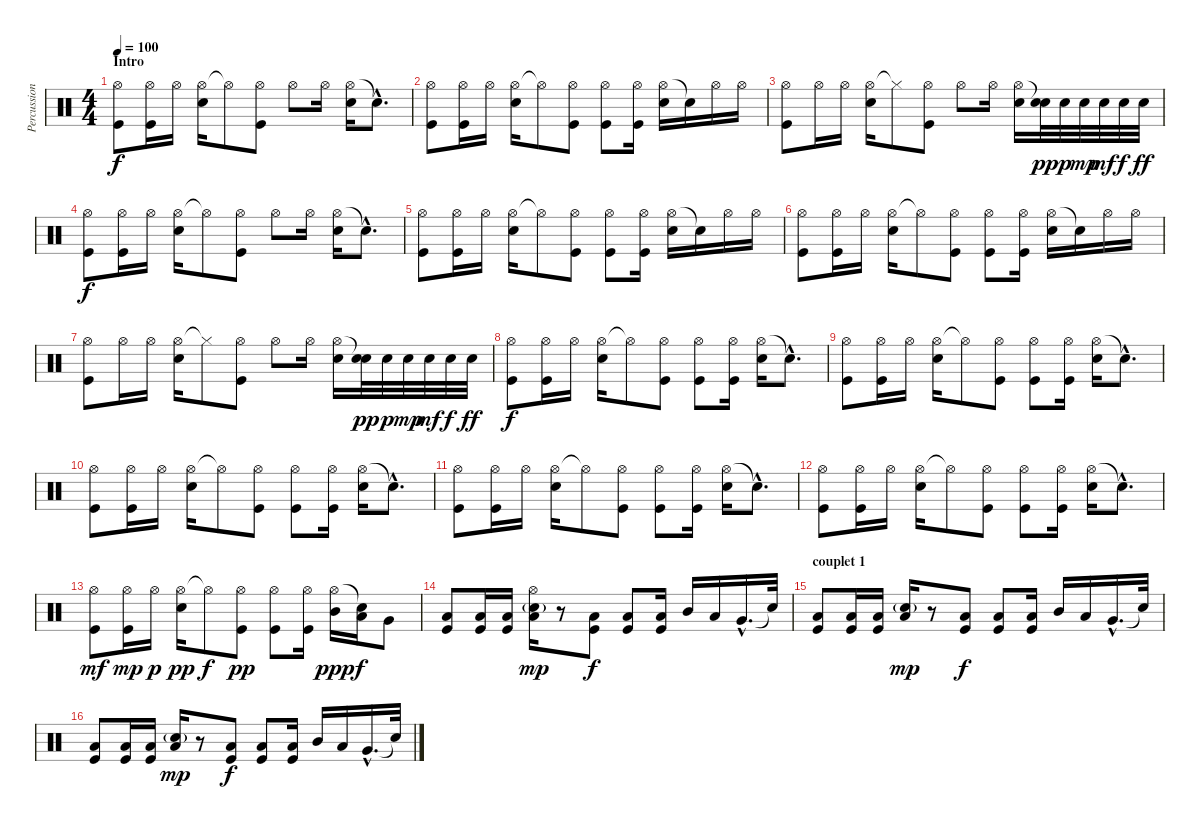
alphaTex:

\track ("Percussions" "Percussion") {instrument percussion}
\staff {score}
\articulation defaults
\ts (4 4)
\section ("" "Intro")
\tempo 100
\clef neutral
\ks c
("Hi-Hat (open)" "Kick (hit)").8{dy f} ("Hi-Hat (open)" "Kick (hit)").16 "Hi-Hat (open)".16 ("Hi-Hat (open)" "Electric Snare (hit)").16 "Hi-Hat (open)"{t}.8 ("Hi-Hat (open)" "Kick (hit)").8 "Hi-Hat (open)".8 "Hi-Hat (open)".16 ("Hi-Hat (open)" "Electric Snare (hit)").16 "Snare (hit)"{hac t}.8{d} |
("Hi-Hat (open)" "Kick (hit)").8 ("Hi-Hat (open)" "Kick (hit)").16 "Hi-Hat (open)".16 ("Hi-Hat (open)" "Electric Snare (hit)").16 "Hi-Hat (open)"{t}.8 ("Hi-Hat (open)" "Kick (hit)").8 ("Hi-Hat (open)" "Kick (hit)").8 ("Hi-Hat (open)" "Kick (hit)").16 ("Hi-Hat (open)" "Electric Snare (hit)").16 "Snare (hit)"{t}.16 "Hi-Hat (open)".16 "Hi-Hat (open)".16 |
("Hi-Hat (open)" "Kick (hit)").8 "Hi-Hat (open)".16 "Hi-Hat (open)".16 ("Hi-Hat (open)" "Electric Snare (hit)").16 "Hi-Hat (closed)"{t}.8 ("Hi-Hat (open)" "Kick (hit)").8 "Hi-Hat (open)".8 "Hi-Hat (open)".16 ("Hi-Hat (open)" "Electric Snare (hit)").16 ("Snare (hit)"{t} "Electric Snare (hit)").32{dy pp} "Electric Snare (hit)".32{dy p} "Electric Snare (hit)".32{dy mp} "Electric Snare (hit)".32{dy mf} "Electric Snare (hit)".32{dy f} "Electric Snare (hit)".32{dy ff} |
("Hi-Hat (open)" "Kick (hit)").8{dy f} ("Hi-Hat (open)" "Kick (hit)").16 "Hi-Hat (open)".16 ("Hi-Hat (open)" "Electric Snare (hit)").16 "Hi-Hat (open)"{t}.8 ("Hi-Hat (open)" "Kick (hit)").8 "Hi-Hat (open)".8 "Hi-Hat (open)".16 ("Hi-Hat (open)" "Electric Snare (hit)").16 "Snare (hit)"{hac t}.8{d} |
("Hi-Hat (open)" "Kick (hit)").8 ("Hi-Hat (open)" "Kick (hit)").16 "Hi-Hat (open)".16 ("Hi-Hat (open)" "Electric Snare (hit)").16 "Hi-Hat (open)"{t}.8 ("Hi-Hat (open)" "Kick (hit)").8 ("Hi-Hat (open)" "Kick (hit)").8 ("Hi-Hat (open)" "Kick (hit)").16 ("Hi-Hat (open)" "Electric Snare (hit)").16 "Snare (hit)"{t}.16 "Hi-Hat (open)".16 "Hi-Hat (open)".16 |
("Hi-Hat (open)" "Kick (hit)").8 ("Hi-Hat (open)" "Kick (hit)").16 "Hi-Hat (open)".16 ("Hi-Hat (open)" "Electric Snare (hit)").16 "Hi-Hat (open)"{t}.8 ("Hi-Hat (open)" "Kick (hit)").8 ("Hi-Hat (open)" "Kick (hit)").8 ("Hi-Hat (open)" "Kick (hit)").16 ("Hi-Hat (open)" "Electric Snare (hit)").16 "Snare (hit)"{t}.16 "Hi-Hat (open)".16 "Hi-Hat (open)".16 |
("Hi-Hat (open)" "Kick (hit)").8 "Hi-Hat (open)".16 "Hi-Hat (open)".16 ("Hi-Hat (open)" "Electric Snare (hit)").16 "Hi-Hat (closed)"{t}.8 ("Hi-Hat (open)" "Kick (hit)").8 "Hi-Hat (open)".8 "Hi-Hat (open)".16 ("Hi-Hat (open)" "Electric Snare (hit)").16 ("Snare (hit)"{t} "Electric Snare (hit)").32{dy pp} "Electric Snare (hit)".32{dy p} "Electric Snare (hit)".32{dy mp} "Electric Snare (hit)".32{dy mf} "Electric Snare (hit)".32{dy f} "Electric Snare (hit)".32{dy ff} |
("Hi-Hat (open)" "Kick (hit)").8{dy f} ("Hi-Hat (open)" "Kick (hit)").16 "Hi-Hat (open)".16 ("Hi-Hat (open)" "Electric Snare (hit)").16 "Hi-Hat (open)"{t}.8 ("Hi-Hat (open)" "Kick (hit)").8 ("Hi-Hat (open)" "Kick (hit)").8 ("Hi-Hat (open)" "Kick (hit)").16 ("Hi-Hat (open)" "Electric Snare (hit)").16 "Snare (hit)"{hac t}.8{d} |
("Hi-Hat (open)" "Kick (hit)").8 ("Hi-Hat (open)" "Kick (hit)").16 "Hi-Hat (open)".16 ("Hi-Hat (open)" "Electric Snare (hit)").16 "Hi-Hat (open)"{t}.8 ("Hi-Hat (open)" "Kick (hit)").8 ("Hi-Hat (open)" "Kick (hit)").8 ("Hi-Hat (open)" "Kick (hit)").16 ("Hi-Hat (open)" "Electric Snare (hit)").16 "Snare (hit)"{hac t}.8{d} |
("Hi-Hat (open)" "Kick (hit)").8 ("Hi-Hat (open)" "Kick (hit)").16 "Hi-Hat (open)".16 ("Hi-Hat (open)" "Electric Snare (hit)").16 "Hi-Hat (open)"{t}.8 ("Hi-Hat (open)" "Kick (hit)").8 ("Hi-Hat (open)" "Kick (hit)").8 ("Hi-Hat (open)" "Kick (hit)").16 ("Hi-Hat (open)" "Electric Snare (hit)").16 "Snare (hit)"{hac t}.8{d} |
("Hi-Hat (open)" "Kick (hit)").8 ("Hi-Hat (open)" "Kick (hit)").16 "Hi-Hat (open)".16 ("Hi-Hat (open)" "Electric Snare (hit)").16 "Hi-Hat (open)"{t}.8 ("Hi-Hat (open)" "Kick (hit)").8 ("Hi-Hat (open)" "Kick (hit)").8 ("Hi-Hat (open)" "Kick (hit)").16 ("Hi-Hat (open)" "Electric Snare (hit)").16 "Snare (hit)"{hac t}.8{d} |
("Hi-Hat (open)" "Kick (hit)").8 ("Hi-Hat (open)" "Kick (hit)").16 "Hi-Hat (open)".16 ("Hi-Hat (open)" "Electric Snare (hit)").16 "Hi-Hat (open)"{t}.8 ("Hi-Hat (open)" "Kick (hit)").8 ("Hi-Hat (open)" "Kick (hit)").8 ("Hi-Hat (open)" "Kick (hit)").16 ("Hi-Hat (open)" "Electric Snare (hit)").16 "Snare (hit)"{hac t}.8{d} |
("Hi-Hat (open)" "Kick (hit)").8{dy mf volume 16} ("Hi-Hat (open)" "Kick (hit)").16{dy mp} "Hi-Hat (open)".16{dy p} ("Hi-Hat (open)" "Electric Snare (hit)").16{dy pp} "Hi-Hat (open)"{t}.8{dy f} ("Hi-Hat (open)" "Kick (hit)").8{dy pp} ("Hi-Hat (open)" "Kick (hit)").8 ("Hi-Hat (open)" "Kick (hit)").16 ("Hi-Hat (open)" "Mid Tom (hit)").16{dy ppp} ("Snare (hit)"{t} "Low Tom (hit)").16{dy f} "Very Low Tom (hit)".8 |
("Kick (hit)" "Low Floor Tom (hit)").8 ("Kick (hit)" "Low Floor Tom (hit)").16 ("Kick (hit)" "Low Floor Tom (hit)").16 ("Hi-Hat (open)" "Electric Snare (hit)"{g} "Low Tom (hit)").16{dy mp} r.8 ("Kick (hit)" "Low Floor Tom (hit)").8{dy f} ("Kick (hit)" "Low Floor Tom (hit)").8 ("Kick (hit)" "Low Floor Tom (hit)").16 "Mid Tom (hit)".16 "Low Tom (hit)".16 "Very Low Tom (hit)"{hac}.16{d} "Snare (hit)"{t}.32 |
\section ("" "couplet 1")
("Kick (hit)" "Low Floor Tom (hit)").8 ("Kick (hit)" "Low Floor Tom (hit)").16 ("Kick (hit)" "Low Floor Tom (hit)").16 ("Electric Snare (hit)"{g} "Low Tom (hit)").16{dy mp} r.8 ("Kick (hit)" "Low Floor Tom (hit)").8{dy f} ("Kick (hit)" "Low Floor Tom (hit)").8 ("Kick (hit)" "Low Floor Tom (hit)").16 "Mid Tom (hit)".16 "Low Tom (hit)".16 "Very Low Tom (hit)"{hac}.16{d} "Snare (hit)"{t}.32 |
("Kick (hit)" "Low Floor Tom (hit)").8 ("Kick (hit)" "Low Floor Tom (hit)").16 ("Kick (hit)" "Low Floor Tom (hit)").16 ("Electric Snare (hit)"{g} "Low Tom (hit)").16{dy mp} r.8 ("Kick (hit)" "Low Floor Tom (hit)").8{dy f} ("Kick (hit)" "Low Floor Tom (hit)").8 ("Kick (hit)" "Low Floor Tom (hit)").16 "Mid Tom (hit)".16 "Low Tom (hit)".16 "Very Low Tom (hit)"{hac}.16{d} "Snare (hit)"{t}.32
